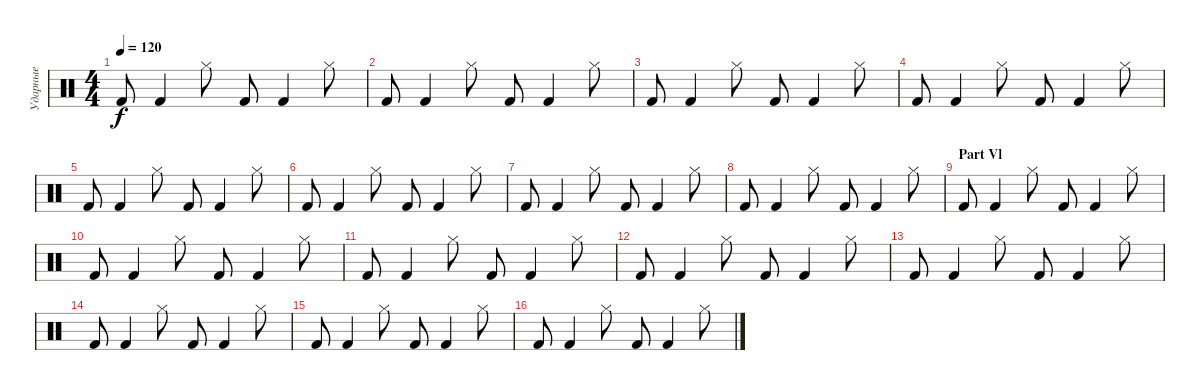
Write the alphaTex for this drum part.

\track ("Ударные" "Ударные") {instrument percussion}
\staff {score}
\articulation defaults
\ts (4 4)
\tempo 120
\clef neutral
\ks c "Kick (hit) 2".8{dy f} "Kick (hit) 2".4 "Hi-Hat (closed)".8 "Kick (hit) 2".8 "Kick (hit) 2".4 "Hi-Hat (closed)".8
|
"Kick (hit) 2".8 "Kick (hit) 2".4 "Hi-Hat (closed)".8 "Kick (hit) 2".8 "Kick (hit) 2".4 "Hi-Hat (closed)".8 |
"Kick (hit) 2".8 "Kick (hit) 2".4 "Hi-Hat (closed)".8 "Kick (hit) 2".8 "Kick (hit) 2".4 "Hi-Hat (closed)".8 |
"Kick (hit) 2".8 "Kick (hit) 2".4 "Hi-Hat (closed)".8 "Kick (hit) 2".8 "Kick (hit) 2".4 "Hi-Hat (closed)".8 |
"Kick (hit) 2".8 "Kick (hit) 2".4 "Hi-Hat (closed)".8 "Kick (hit) 2".8 "Kick (hit) 2".4 "Hi-Hat (closed)".8 |
"Kick (hit) 2".8 "Kick (hit) 2".4 "Hi-Hat (closed)".8 "Kick (hit) 2".8 "Kick (hit) 2".4 "Hi-Hat (closed)".8 |
"Kick (hit) 2".8 "Kick (hit) 2".4 "Hi-Hat (closed)".8 "Kick (hit) 2".8 "Kick (hit) 2".4 "Hi-Hat (closed)".8 |
"Kick (hit) 2".8 "Kick (hit) 2".4 "Hi-Hat (closed)".8 "Kick (hit) 2".8 "Kick (hit) 2".4 "Hi-Hat (closed)".8 |
\section ("" "Part Vl")
"Kick (hit) 2".8 "Kick (hit) 2".4 "Hi-Hat (closed)".8 "Kick (hit) 2".8 "Kick (hit) 2".4 "Hi-Hat (closed)".8 |
"Kick (hit) 2".8 "Kick (hit) 2".4 "Hi-Hat (closed)".8 "Kick (hit) 2".8 "Kick (hit) 2".4 "Hi-Hat (closed)".8 |
"Kick (hit) 2".8 "Kick (hit) 2".4 "Hi-Hat (closed)".8 "Kick (hit) 2".8 "Kick (hit) 2".4 "Hi-Hat (closed)".8 |
"Kick (hit) 2".8 "Kick (hit) 2".4 "Hi-Hat (closed)".8 "Kick (hit) 2".8 "Kick (hit) 2".4 "Hi-Hat (closed)".8 |
"Kick (hit) 2".8 "Kick (hit) 2".4 "Hi-Hat (closed)".8 "Kick (hit) 2".8 "Kick (hit) 2".4 "Hi-Hat (closed)".8 |
"Kick (hit) 2".8 "Kick (hit) 2".4 "Hi-Hat (closed)".8 "Kick (hit) 2".8 "Kick (hit) 2".4 "Hi-Hat (closed)".8 |
"Kick (hit) 2".8 "Kick (hit) 2".4 "Hi-Hat (closed)".8 "Kick (hit) 2".8 "Kick (hit) 2".4 "Hi-Hat (closed)".8 |
"Kick (hit) 2".8 "Kick (hit) 2".4 "Hi-Hat (closed)".8 "Kick (hit) 2".8 "Kick (hit) 2".4 "Hi-Hat (closed)".8
